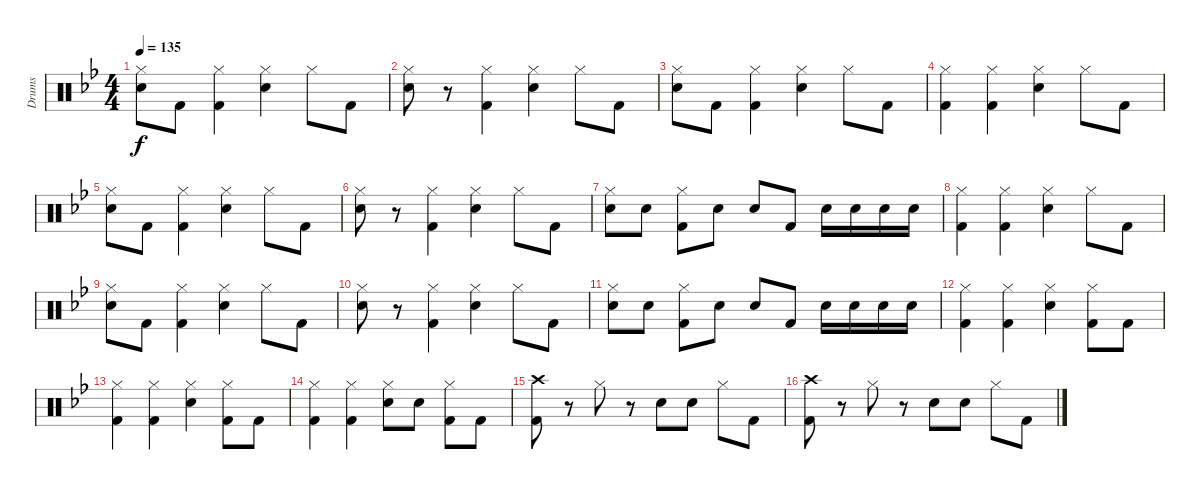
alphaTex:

\track ("Drums" "Drums") {instrument percussion}
\staff {score}
\articulation defaults
\ts (4 4)
\tempo 135
\clef neutral
\ks bb
("Hi-Hat (closed)" "Snare (hit) 2").8{dy f} "Kick (hit) 2".8 ("Hi-Hat (closed)" "Kick (hit) 2").4 ("Hi-Hat (closed)" "Snare (hit) 2").4 "Hi-Hat (closed)".8 "Kick (hit) 2".8 |
("Hi-Hat (closed)" "Snare (hit) 2").8 r.8 ("Hi-Hat (closed)" "Kick (hit) 2").4 ("Hi-Hat (closed)" "Snare (hit) 2").4 "Hi-Hat (closed)".8 "Kick (hit) 2".8 |
("Hi-Hat (closed)" "Snare (hit) 2").8 "Kick (hit) 2".8 ("Hi-Hat (closed)" "Kick (hit) 2").4 ("Hi-Hat (closed)" "Snare (hit) 2").4 "Hi-Hat (closed)".8 "Kick (hit) 2".8 |
("Hi-Hat (closed)" "Kick (hit) 2").4 ("Hi-Hat (closed)" "Kick (hit) 2").4 ("Hi-Hat (closed)" "Snare (hit) 2").4 "Hi-Hat (closed)".8 "Kick (hit) 2".8 |
("Hi-Hat (closed)" "Snare (hit) 2").8 "Kick (hit) 2".8 ("Hi-Hat (closed)" "Kick (hit) 2").4 ("Hi-Hat (closed)" "Snare (hit) 2").4 "Hi-Hat (closed)".8 "Kick (hit) 2".8 |
("Hi-Hat (closed)" "Snare (hit) 2").8 r.8 ("Hi-Hat (closed)" "Kick (hit) 2").4 ("Hi-Hat (closed)" "Snare (hit) 2").4 "Hi-Hat (closed)".8 "Kick (hit) 2".8 |
("Hi-Hat (closed)" "Snare (hit) 2").8 "Snare (hit) 2".8 ("Hi-Hat (closed)" "Kick (hit) 2").8 "Snare (hit) 2".8 "Snare (hit) 2".8 "Kick (hit) 2".8 "Snare (hit) 2".16 "Snare (hit) 2".16 "Snare (hit) 2".16 "Snare (hit) 2".16 |
("Hi-Hat (closed)" "Kick (hit) 2").4 ("Hi-Hat (closed)" "Kick (hit) 2").4 ("Hi-Hat (closed)" "Snare (hit) 2").4 "Hi-Hat (closed)".8 "Kick (hit) 2".8 |
("Hi-Hat (closed)" "Snare (hit) 2").8 "Kick (hit) 2".8 ("Hi-Hat (closed)" "Kick (hit) 2").4 ("Hi-Hat (closed)" "Snare (hit) 2").4 "Hi-Hat (closed)".8 "Kick (hit) 2".8 |
("Hi-Hat (closed)" "Snare (hit) 2").8 r.8 ("Hi-Hat (closed)" "Kick (hit) 2").4 ("Hi-Hat (closed)" "Snare (hit) 2").4 "Hi-Hat (closed)".8 "Kick (hit) 2".8 |
("Hi-Hat (closed)" "Snare (hit) 2").8 "Snare (hit) 2".8 ("Hi-Hat (closed)" "Kick (hit) 2").8 "Snare (hit) 2".8 "Snare (hit) 2".8 "Kick (hit) 2".8 "Snare (hit) 2".16 "Snare (hit) 2".16 "Snare (hit) 2".16 "Snare (hit) 2".16 |
("Hi-Hat (closed)" "Kick (hit) 2").4 ("Hi-Hat (closed)" "Kick (hit) 2").4 ("Hi-Hat (closed)" "Snare (hit) 2").4 ("Hi-Hat (closed)" "Kick (hit) 2").8 "Kick (hit) 2".8 |
("Hi-Hat (closed)" "Kick (hit) 2").4 ("Hi-Hat (closed)" "Kick (hit) 2").4 ("Hi-Hat (closed)" "Snare (hit) 2").4 ("Hi-Hat (closed)" "Kick (hit) 2").8 "Kick (hit) 2".8 |
("Hi-Hat (closed)" "Kick (hit) 2").4 ("Hi-Hat (closed)" "Kick (hit) 2").4 ("Hi-Hat (closed)" "Snare (hit) 2").8 "Snare (hit) 2".8 ("Hi-Hat (closed)" "Kick (hit) 2").8 "Kick (hit) 2".8 |
("Crash high (hit)" "Kick (hit) 2").8 r.8 "Hi-Hat (closed)".8 r.8 "Snare (hit) 2".8 "Snare (hit) 2".8 "Hi-Hat (closed)".8 "Kick (hit) 2".8 |
("Crash high (hit)" "Kick (hit) 2").8 r.8 "Hi-Hat (closed)".8 r.8 "Snare (hit) 2".8 "Snare (hit) 2".8 "Hi-Hat (closed)".8 "Kick (hit) 2".8
